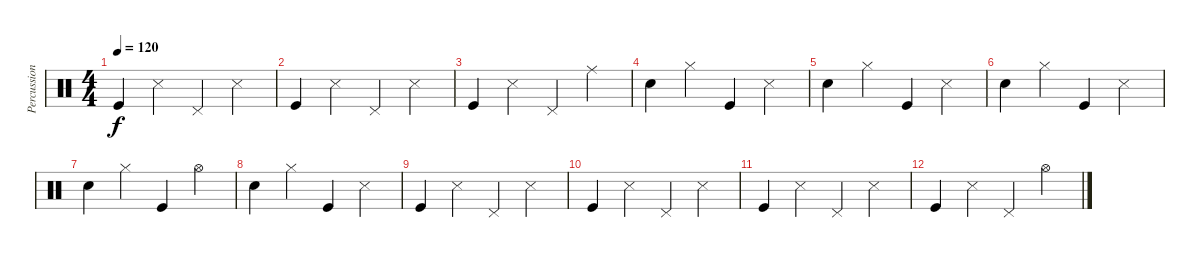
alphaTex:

\track ("Percussion" "Percussion") {instrument percussion}
\staff {score}
\articulation defaults
\ts (4 4)
\tempo 120
\clef neutral
\ks c "Kick (hit)".4{dy f} "Snare (side stick) 3".4 "Pedal Hi-Hat (hit)".4 "Snare (side stick) 3".4
|
"Kick (hit)".4 "Snare (side stick) 3".4 "Pedal Hi-Hat (hit)".4 "Snare (side stick) 3".4 |
"Kick (hit)".4 "Snare (side stick) 3".4 "Pedal Hi-Hat (hit)".4 "Ride (middle)".4 |
"Snare (hit) 2".4 "Hi-Hat (closed)".4 "Kick (hit)".4 "Snare (side stick) 3".4 |
"Snare (hit) 2".4 "Hi-Hat (closed)".4 "Kick (hit)".4 "Snare (side stick) 3".4 |
"Snare (hit) 2".4 "Hi-Hat (closed)".4 "Kick (hit)".4 "Snare (side stick) 3".4 |
"Snare (hit) 2".4 "Hi-Hat (closed)".4 "Kick (hit)".4 "Hi-Hat (open)".4 |
"Snare (hit) 2".4 "Hi-Hat (closed)".4 "Kick (hit)".4 "Snare (side stick) 3".4 |
"Kick (hit)".4 "Snare (side stick) 3".4 "Pedal Hi-Hat (hit)".4 "Snare (side stick) 3".4 |
"Kick (hit)".4 "Snare (side stick) 3".4 "Pedal Hi-Hat (hit)".4 "Snare (side stick) 3".4 |
"Kick (hit)".4 "Snare (side stick) 3".4 "Pedal Hi-Hat (hit)".4 "Snare (side stick) 3".4 |
"Kick (hit)".4 "Snare (side stick) 3".4 "Pedal Hi-Hat (hit)".4 "Hi-Hat (open)".4
